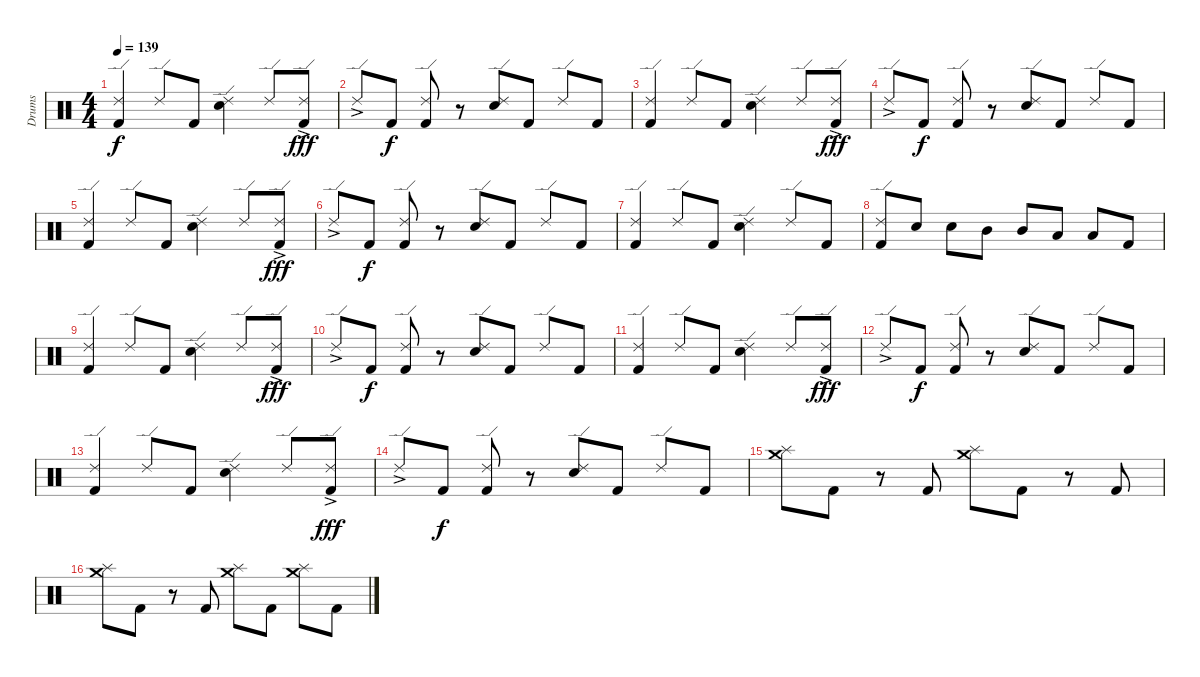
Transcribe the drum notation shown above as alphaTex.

\track ("Drums" "Drums") {instrument percussion}
\staff {score}
\articulation defaults
\ts (4 4)
\tempo 139
\clef neutral
\ks c
("Ride (edge) 2" "Kick (hit) 2").4{dy f} "Ride (edge) 2".8 "Kick (hit) 2".8 ("Ride (edge) 2" "Electric Snare (hit)").4 "Ride (edge) 2".8 ("Ride (edge) 2"{ac} "Kick (hit) 2").8{dy fff} |
"Ride (edge) 2"{ac}.8 "Kick (hit) 2".8{dy f} ("Ride (edge) 2" "Kick (hit) 2").8 r.8 ("Ride (edge) 2" "Electric Snare (hit)").8 "Kick (hit) 2".8 "Ride (edge) 2".8 "Kick (hit) 2".8 |
("Ride (edge) 2" "Kick (hit) 2").4 "Ride (edge) 2".8 "Kick (hit) 2".8 ("Ride (edge) 2" "Electric Snare (hit)").4 "Ride (edge) 2".8 ("Ride (edge) 2"{ac} "Kick (hit) 2").8{dy fff} |
"Ride (edge) 2"{ac}.8 "Kick (hit) 2".8{dy f} ("Ride (edge) 2" "Kick (hit) 2").8 r.8 ("Ride (edge) 2" "Electric Snare (hit)").8 "Kick (hit) 2".8 "Ride (edge) 2".8 "Kick (hit) 2".8 |
("Ride (edge) 2" "Kick (hit) 2").4 "Ride (edge) 2".8 "Kick (hit) 2".8 ("Ride (edge) 2" "Electric Snare (hit)").4 "Ride (edge) 2".8 ("Ride (edge) 2"{ac} "Kick (hit) 2").8{dy fff} |
"Ride (edge) 2"{ac}.8 "Kick (hit) 2".8{dy f} ("Ride (edge) 2" "Kick (hit) 2").8 r.8 ("Ride (edge) 2" "Electric Snare (hit)").8 "Kick (hit) 2".8 "Ride (edge) 2".8 "Kick (hit) 2".8 |
("Ride (edge) 2" "Kick (hit) 2").4 "Ride (edge) 2".8 "Kick (hit) 2".8 ("Ride (edge) 2" "Electric Snare (hit)").4 "Ride (edge) 2".8 "Kick (hit) 2".8 |
("Ride (edge) 2" "Kick (hit) 2").8 "Electric Snare (hit)".8 "Electric Snare (hit)".8 "Mid Tom (hit)".8 "Mid Tom (hit)".8 "Low Floor Tom (hit)".8 "Low Floor Tom (hit)".8 "Kick (hit) 2".8 |
("Ride (edge) 2" "Kick (hit) 2").4 "Ride (edge) 2".8 "Kick (hit) 2".8 ("Ride (edge) 2" "Electric Snare (hit)").4 "Ride (edge) 2".8 ("Ride (edge) 2"{ac} "Kick (hit) 2").8{dy fff} |
"Ride (edge) 2"{ac}.8 "Kick (hit) 2".8{dy f} ("Ride (edge) 2" "Kick (hit) 2").8 r.8 ("Ride (edge) 2" "Electric Snare (hit)").8 "Kick (hit) 2".8 "Ride (edge) 2".8 "Kick (hit) 2".8 |
("Ride (edge) 2" "Kick (hit) 2").4 "Ride (edge) 2".8 "Kick (hit) 2".8 ("Ride (edge) 2" "Electric Snare (hit)").4 "Ride (edge) 2".8 ("Ride (edge) 2"{ac} "Kick (hit) 2").8{dy fff} |
"Ride (edge) 2"{ac}.8 "Kick (hit) 2".8{dy f} ("Ride (edge) 2" "Kick (hit) 2").8 r.8 ("Ride (edge) 2" "Electric Snare (hit)").8 "Kick (hit) 2".8 "Ride (edge) 2".8 "Kick (hit) 2".8 |
("Ride (edge) 2" "Kick (hit) 2").4 "Ride (edge) 2".8 "Kick (hit) 2".8 ("Ride (edge) 2" "Electric Snare (hit)").4 "Ride (edge) 2".8 ("Ride (edge) 2"{ac} "Kick (hit) 2").8{dy fff} |
"Ride (edge) 2"{ac}.8 "Kick (hit) 2".8{dy f} ("Ride (edge) 2" "Kick (hit) 2").8 r.8 ("Ride (edge) 2" "Electric Snare (hit)").8 "Kick (hit) 2".8 "Ride (edge) 2".8 "Kick (hit) 2".8 |
("Crash medium (hit)" "Splash (hit)").8 "Kick (hit) 2".8 r.8 "Kick (hit) 2".8 ("Crash medium (hit)" "Splash (hit)").8 "Kick (hit) 2".8 r.8 "Kick (hit) 2".8 |
("Crash medium (hit)" "Splash (hit)").8 "Kick (hit) 2".8 r.8 "Kick (hit) 2".8 ("Crash medium (hit)" "Splash (hit)").8 "Kick (hit) 2".8 ("Crash medium (hit)" "Splash (hit)").8 "Kick (hit) 2".8
